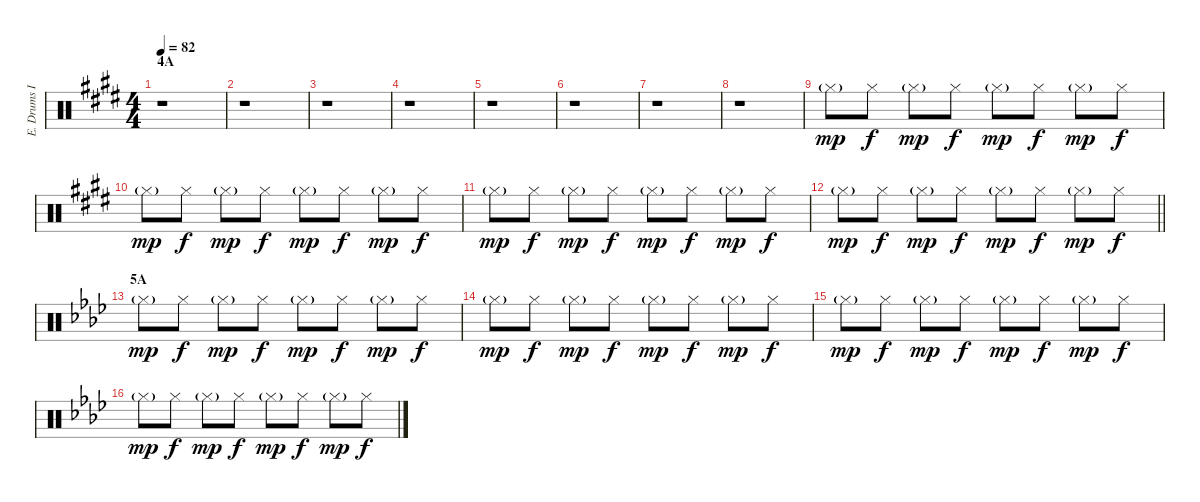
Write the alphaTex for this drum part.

\track ("E. Drums II" "E. Drums I") {instrument percussion}
\staff {score}
\articulation defaults
\ts (4 4)
\section ("" "4A")
\tempo 82
\clef neutral
\ks e
r.1{dy f} |
r.1 |
r.1 |
r.1 |
r.1 |
r.1 |
r.1 |
r.1 |
"Hi-Hat (closed)"{g}.8{dy mp} "Hi-Hat (closed)".8{dy f} "Hi-Hat (closed)"{g}.8{dy mp} "Hi-Hat (closed)".8{dy f} "Hi-Hat (closed)"{g}.8{dy mp} "Hi-Hat (closed)".8{dy f} "Hi-Hat (closed)"{g}.8{dy mp} "Hi-Hat (closed)".8{dy f} |
"Hi-Hat (closed)"{g}.8{dy mp} "Hi-Hat (closed)".8{dy f} "Hi-Hat (closed)"{g}.8{dy mp} "Hi-Hat (closed)".8{dy f} "Hi-Hat (closed)"{g}.8{dy mp} "Hi-Hat (closed)".8{dy f} "Hi-Hat (closed)"{g}.8{dy mp} "Hi-Hat (closed)".8{dy f} |
"Hi-Hat (closed)"{g}.8{dy mp} "Hi-Hat (closed)".8{dy f} "Hi-Hat (closed)"{g}.8{dy mp} "Hi-Hat (closed)".8{dy f} "Hi-Hat (closed)"{g}.8{dy mp} "Hi-Hat (closed)".8{dy f} "Hi-Hat (closed)"{g}.8{dy mp} "Hi-Hat (closed)".8{dy f} |
\barLineRight lightlight "Hi-Hat (closed)"{g}.8{dy mp} "Hi-Hat (closed)".8{dy f} "Hi-Hat (closed)"{g}.8{dy mp} "Hi-Hat (closed)".8{dy f} "Hi-Hat (closed)"{g}.8{dy mp} "Hi-Hat (closed)".8{dy f} "Hi-Hat (closed)"{g}.8{dy mp} "Hi-Hat (closed)".8{dy f}
|
\section ("" "5A")
\ks ab "Hi-Hat (closed)"{g}.8{dy mp} "Hi-Hat (closed)".8{dy f} "Hi-Hat (closed)"{g}.8{dy mp} "Hi-Hat (closed)".8{dy f} "Hi-Hat (closed)"{g}.8{dy mp} "Hi-Hat (closed)".8{dy f} "Hi-Hat (closed)"{g}.8{dy mp} "Hi-Hat (closed)".8{dy f}
|
"Hi-Hat (closed)"{g}.8{dy mp} "Hi-Hat (closed)".8{dy f} "Hi-Hat (closed)"{g}.8{dy mp} "Hi-Hat (closed)".8{dy f} "Hi-Hat (closed)"{g}.8{dy mp} "Hi-Hat (closed)".8{dy f} "Hi-Hat (closed)"{g}.8{dy mp} "Hi-Hat (closed)".8{dy f} |
"Hi-Hat (closed)"{g}.8{dy mp} "Hi-Hat (closed)".8{dy f} "Hi-Hat (closed)"{g}.8{dy mp} "Hi-Hat (closed)".8{dy f} "Hi-Hat (closed)"{g}.8{dy mp} "Hi-Hat (closed)".8{dy f} "Hi-Hat (closed)"{g}.8{dy mp} "Hi-Hat (closed)".8{dy f} |
"Hi-Hat (closed)"{g}.8{dy mp} "Hi-Hat (closed)".8{dy f} "Hi-Hat (closed)"{g}.8{dy mp} "Hi-Hat (closed)".8{dy f} "Hi-Hat (closed)"{g}.8{dy mp} "Hi-Hat (closed)".8{dy f} "Hi-Hat (closed)"{g}.8{dy mp} "Hi-Hat (closed)".8{dy f}
